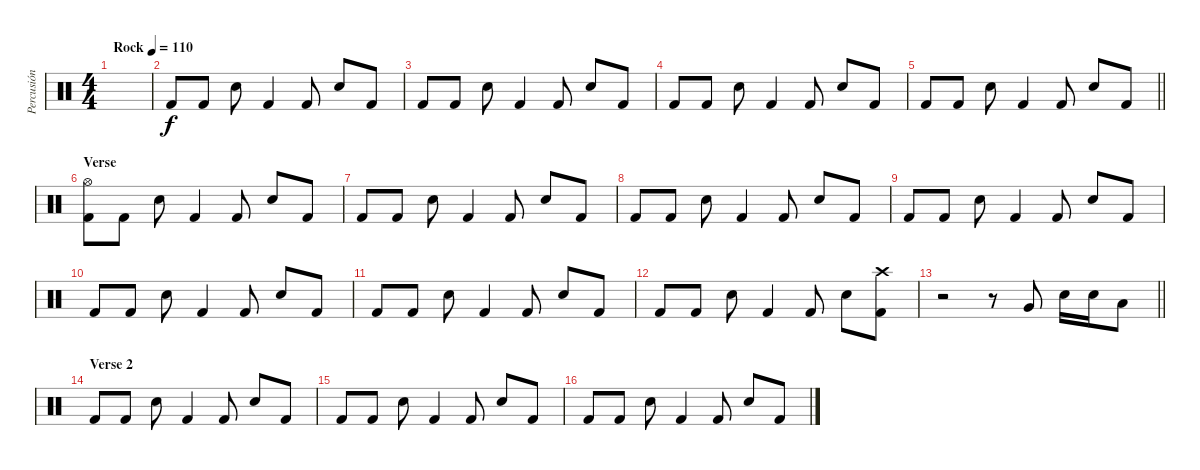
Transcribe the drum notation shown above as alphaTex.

\track ("Percusión" "Percusión") {instrument percussion}
\staff {score}
\articulation defaults
\ts (4 4)
\tempo (110 "Rock")
\clef neutral
\ks c
|
"Kick (hit) 2".8 "Kick (hit) 2".8 "Snare (hit) 2".8 "Kick (hit) 2".4 "Kick (hit) 2".8 "Snare (hit) 2".8 "Kick (hit) 2".8 |
"Kick (hit) 2".8 "Kick (hit) 2".8 "Snare (hit) 2".8 "Kick (hit) 2".4 "Kick (hit) 2".8 "Snare (hit) 2".8 "Kick (hit) 2".8 |
"Kick (hit) 2".8 "Kick (hit) 2".8 "Snare (hit) 2".8 "Kick (hit) 2".4 "Kick (hit) 2".8 "Snare (hit) 2".8 "Kick (hit) 2".8 |
\barLineRight lightlight "Kick (hit) 2".8 "Kick (hit) 2".8 "Snare (hit) 2".8 "Kick (hit) 2".4 "Kick (hit) 2".8 "Snare (hit) 2".8 "Kick (hit) 2".8
|
\section ("" "Verse ")
("Hi-Hat (open)" "Kick (hit) 2").8 "Kick (hit) 2".8 "Snare (hit) 2".8 "Kick (hit) 2".4 "Kick (hit) 2".8 "Snare (hit) 2".8 "Kick (hit) 2".8 |
"Kick (hit) 2".8 "Kick (hit) 2".8 "Snare (hit) 2".8 "Kick (hit) 2".4 "Kick (hit) 2".8 "Snare (hit) 2".8 "Kick (hit) 2".8 |
"Kick (hit) 2".8 "Kick (hit) 2".8 "Snare (hit) 2".8 "Kick (hit) 2".4 "Kick (hit) 2".8 "Snare (hit) 2".8 "Kick (hit) 2".8 |
"Kick (hit) 2".8 "Kick (hit) 2".8 "Snare (hit) 2".8 "Kick (hit) 2".4 "Kick (hit) 2".8 "Snare (hit) 2".8 "Kick (hit) 2".8 |
"Kick (hit) 2".8 "Kick (hit) 2".8 "Snare (hit) 2".8 "Kick (hit) 2".4 "Kick (hit) 2".8 "Snare (hit) 2".8 "Kick (hit) 2".8 |
"Kick (hit) 2".8 "Kick (hit) 2".8 "Snare (hit) 2".8 "Kick (hit) 2".4 "Kick (hit) 2".8 "Snare (hit) 2".8 "Kick (hit) 2".8 |
"Kick (hit) 2".8 "Kick (hit) 2".8 "Snare (hit) 2".8 "Kick (hit) 2".4 "Kick (hit) 2".8 "Snare (hit) 2".8 ("Crash high (hit)" "Kick (hit) 2").8 |
\barLineRight lightlight
r.2 r.8 "Very Low Tom (hit)".8 "Snare (hit) 2".16 "Snare (hit) 2".16 "Low Floor Tom (hit)".8 |
\section ("" "Verse 2")
"Kick (hit) 2".8 "Kick (hit) 2".8 "Snare (hit) 2".8 "Kick (hit) 2".4 "Kick (hit) 2".8 "Snare (hit) 2".8 "Kick (hit) 2".8 |
"Kick (hit) 2".8 "Kick (hit) 2".8 "Snare (hit) 2".8 "Kick (hit) 2".4 "Kick (hit) 2".8 "Snare (hit) 2".8 "Kick (hit) 2".8 |
"Kick (hit) 2".8 "Kick (hit) 2".8 "Snare (hit) 2".8 "Kick (hit) 2".4 "Kick (hit) 2".8 "Snare (hit) 2".8 "Kick (hit) 2".8
